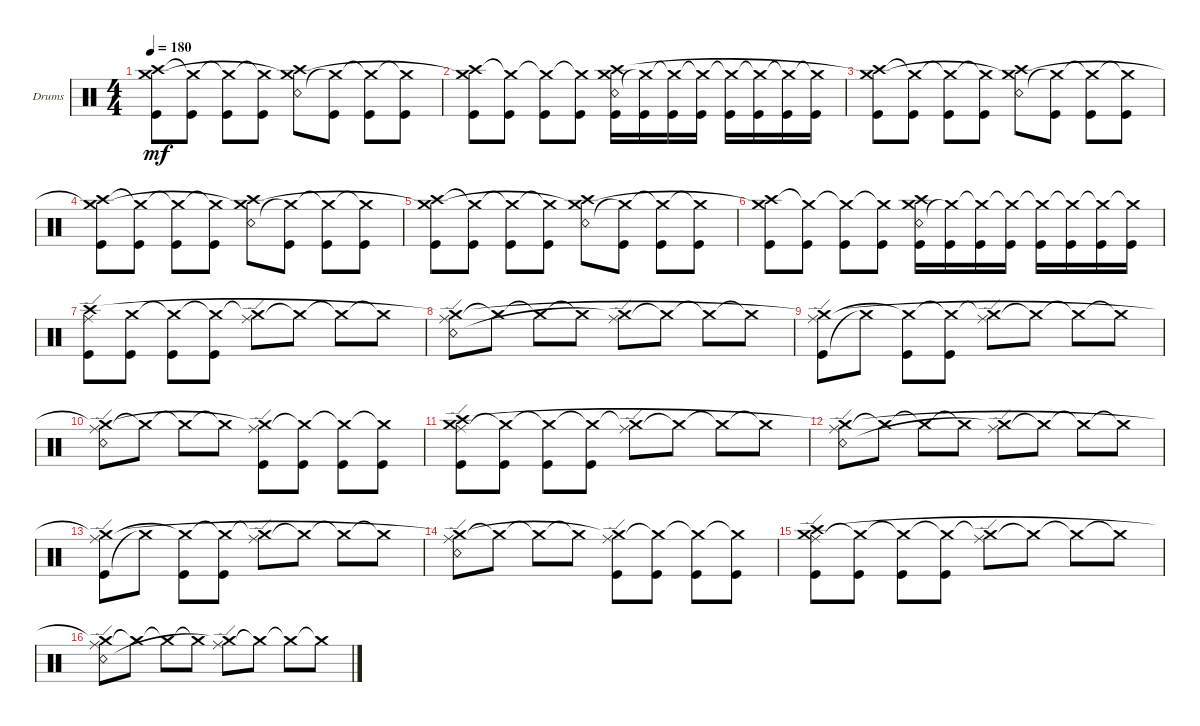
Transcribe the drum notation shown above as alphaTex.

\defaultSystemsLayout 4
\bracketExtendMode groupsimilarinstruments
\firstSystemTrackNameOrientation horizontal
\otherSystemsTrackNameOrientation horizontal
\track ("Drumkit" "Drums") {instrument percussion}
\staff {score}
\articulation defaults
\ts (4 4)
\tempo 180
\clef neutral
\ks c
("Kick (hit)" "Crash high (hit)" "Crash medium (hit)"{t}).8{dy mf} ("Kick (hit)" "Crash medium (hit)"{t}).8 ("Kick (hit)" "Crash medium (hit)"{t}).8 ("Kick (hit)" "Crash medium (hit)"{t}).8 ("Crash high (hit)" "Snare (rim shot)" "Crash medium (hit)"{t}).8 ("Kick (hit)" "Crash medium (hit)"{t}).8 ("Kick (hit)" "Crash medium (hit)"{t}).8 ("Kick (hit)" "Crash medium (hit)"{t}).8 |
("Kick (hit)" "Crash high (hit)" "Crash medium (hit)"{t}).8 ("Kick (hit)" "Crash medium (hit)"{t}).8 ("Kick (hit)" "Crash medium (hit)"{t}).8 ("Kick (hit)" "Crash medium (hit)"{t}).8 ("Kick (hit)" "Snare (rim shot)" "Crash high (hit)" "Crash medium (hit)").16 ("Kick (hit)" "Crash medium (hit)"{t}).16 ("Kick (hit)" "Crash medium (hit)"{t}).16 ("Kick (hit)" "Crash medium (hit)"{t}).16 ("Kick (hit)" "Crash medium (hit)"{t}).16 ("Kick (hit)" "Crash medium (hit)"{t}).16 ("Kick (hit)" "Crash medium (hit)"{t}).16 ("Kick (hit)" "Crash medium (hit)"{t}).16 |
("Kick (hit)" "Crash high (hit)" "Crash medium (hit)"{t}).8 ("Kick (hit)" "Crash medium (hit)"{t}).8 ("Kick (hit)" "Crash medium (hit)"{t}).8 ("Kick (hit)" "Crash medium (hit)"{t}).8 ("Crash high (hit)" "Snare (rim shot)" "Crash medium (hit)"{t}).8 ("Kick (hit)" "Crash medium (hit)"{t}).8 ("Kick (hit)" "Crash medium (hit)"{t}).8 ("Kick (hit)" "Crash medium (hit)"{t}).8 |
("Kick (hit)" "Crash high (hit)" "Crash medium (hit)"{t}).8 ("Kick (hit)" "Crash medium (hit)"{t}).8 ("Kick (hit)" "Crash medium (hit)"{t}).8 ("Kick (hit)" "Crash medium (hit)"{t}).8 ("Crash high (hit)" "Snare (rim shot)" "Crash medium (hit)"{t}).8 ("Kick (hit)" "Crash medium (hit)"{t}).8 ("Kick (hit)" "Crash medium (hit)"{t}).8 ("Kick (hit)" "Crash medium (hit)"{t}).8 |
("Kick (hit)" "Crash high (hit)" "Crash medium (hit)"{t}).8 ("Kick (hit)" "Crash medium (hit)"{t}).8 ("Kick (hit)" "Crash medium (hit)"{t}).8 ("Kick (hit)" "Crash medium (hit)"{t}).8 ("Crash high (hit)" "Snare (rim shot)" "Crash medium (hit)"{t}).8 ("Kick (hit)" "Crash medium (hit)"{t}).8 ("Kick (hit)" "Crash medium (hit)"{t}).8 ("Kick (hit)" "Crash medium (hit)"{t}).8 |
("Kick (hit)" "Crash high (hit)" "Crash medium (hit)"{t}).8 ("Kick (hit)" "Crash medium (hit)"{t}).8 ("Kick (hit)" "Crash medium (hit)"{t}).8 ("Kick (hit)" "Crash medium (hit)"{t}).8 ("Kick (hit)" "Snare (rim shot)" "Crash high (hit)" "Crash medium (hit)").16 ("Kick (hit)" "Crash medium (hit)"{t}).16 ("Kick (hit)" "Crash medium (hit)"{t}).16 ("Kick (hit)" "Crash medium (hit)"{t}).16 ("Kick (hit)" "Crash medium (hit)"{t}).16 ("Kick (hit)" "Crash medium (hit)"{t}).16 ("Kick (hit)" "Crash medium (hit)"{t}).16 ("Kick (hit)" "Crash medium (hit)"{t}).16 |
("Kick (hit)" "Ride (edge)" "Crash high (hit)").8 ("Kick (hit)" "Crash medium (hit)").8 ("Kick (hit)" "Crash medium (hit)"{t}).8 ("Kick (hit)" "Crash medium (hit)"{t}).8 ("Ride (edge)" "Crash medium (hit)"{t}).8 "Crash medium (hit)"{t}.8 "Crash medium (hit)"{t}.8 "Crash medium (hit)"{t}.8 |
("Ride (edge)" "Snare (rim shot)" "Crash medium (hit)"{t}).8 "Crash medium (hit)"{t}.8 "Crash medium (hit)"{t}.8 "Crash medium (hit)"{t}.8 ("Ride (edge)" "Crash medium (hit)"{t}).8 "Crash medium (hit)"{t}.8 "Crash medium (hit)"{t}.8 "Crash medium (hit)"{t}.8 |
("Kick (hit)" "Ride (edge)" "Crash medium (hit)"{t}).8 "Crash medium (hit)"{t}.8 ("Kick (hit)" "Crash medium (hit)"{t}).8 ("Kick (hit)" "Crash medium (hit)"{t}).8 ("Ride (edge)" "Crash medium (hit)"{t}).8 "Crash medium (hit)"{t}.8 "Crash medium (hit)"{t}.8 "Crash medium (hit)"{t}.8 |
("Ride (edge)" "Snare (rim shot)" "Crash medium (hit)"{t}).8 "Crash medium (hit)"{t}.8 "Crash medium (hit)"{t}.8 "Crash medium (hit)"{t}.8 ("Kick (hit)" "Ride (edge)" "Crash medium (hit)"{t}).8 ("Kick (hit)" "Crash medium (hit)"{t}).8 ("Kick (hit)" "Crash medium (hit)"{t}).8 ("Kick (hit)" "Crash medium (hit)"{t}).8 |
("Kick (hit)" "Ride (edge)" "Crash high (hit)" "Crash medium (hit)").8 ("Kick (hit)" "Crash medium (hit)"{t}).8 ("Kick (hit)" "Crash medium (hit)"{t}).8 ("Kick (hit)" "Crash medium (hit)"{t}).8 ("Ride (edge)" "Crash medium (hit)"{t}).8 "Crash medium (hit)"{t}.8 "Crash medium (hit)"{t}.8 "Crash medium (hit)"{t}.8 |
("Ride (edge)" "Snare (rim shot)" "Crash medium (hit)"{t}).8 "Crash medium (hit)"{t}.8 "Crash medium (hit)"{t}.8 "Crash medium (hit)"{t}.8 ("Ride (edge)" "Crash medium (hit)"{t}).8 "Crash medium (hit)"{t}.8 "Crash medium (hit)"{t}.8 "Crash medium (hit)"{t}.8 |
("Kick (hit)" "Ride (edge)" "Crash medium (hit)"{t}).8 "Crash medium (hit)"{t}.8 ("Kick (hit)" "Crash medium (hit)"{t}).8 ("Kick (hit)" "Crash medium (hit)"{t}).8 ("Ride (edge)" "Crash medium (hit)"{t}).8 "Crash medium (hit)"{t}.8 "Crash medium (hit)"{t}.8 "Crash medium (hit)"{t}.8 |
("Ride (edge)" "Snare (rim shot)" "Crash medium (hit)"{t}).8 "Crash medium (hit)"{t}.8 "Crash medium (hit)"{t}.8 "Crash medium (hit)"{t}.8 ("Kick (hit)" "Ride (edge)" "Crash medium (hit)"{t}).8 ("Kick (hit)" "Crash medium (hit)"{t}).8 ("Kick (hit)" "Crash medium (hit)"{t}).8 ("Kick (hit)" "Crash medium (hit)"{t}).8 |
("Kick (hit)" "Ride (edge)" "Crash high (hit)" "Crash medium (hit)").8 ("Kick (hit)" "Crash medium (hit)"{t}).8 ("Kick (hit)" "Crash medium (hit)"{t}).8 ("Kick (hit)" "Crash medium (hit)"{t}).8 ("Ride (edge)" "Crash medium (hit)"{t}).8 "Crash medium (hit)"{t}.8 "Crash medium (hit)"{t}.8 "Crash medium (hit)"{t}.8 |
("Ride (edge)" "Snare (rim shot)" "Crash medium (hit)"{t}).8 "Crash medium (hit)"{t}.8 "Crash medium (hit)"{t}.8 "Crash medium (hit)"{t}.8 ("Ride (edge)" "Crash medium (hit)"{t}).8 "Crash medium (hit)"{t}.8 "Crash medium (hit)"{t}.8 "Crash medium (hit)"{t}.8
